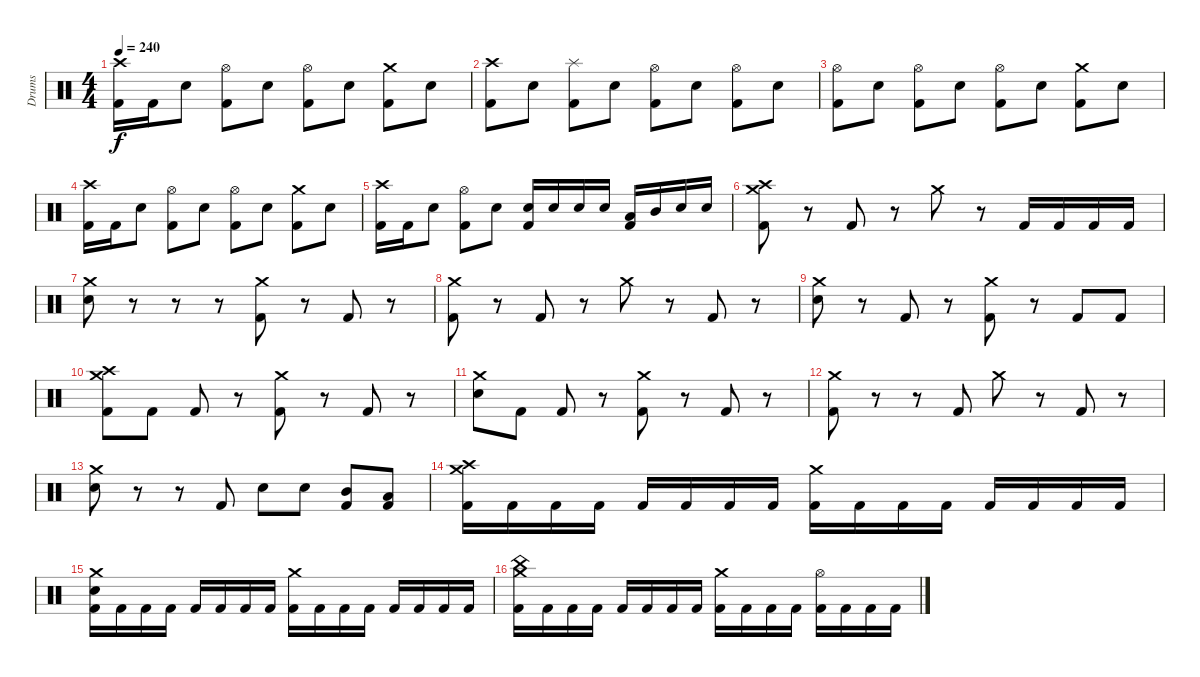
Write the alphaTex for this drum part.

\track ("Drums" "Drums") {instrument percussion}
\staff {score}
\articulation defaults
\ts (4 4)
\tempo 240
\clef neutral
\ks c
("Crash high (hit)" "Kick (hit) 2").16{dy f} "Kick (hit) 2".16 "Electric Snare (hit)".8 ("Hi-Hat (open)" "Kick (hit) 2").8 "Electric Snare (hit)".8 ("Hi-Hat (open)" "Kick (hit) 2").8 "Electric Snare (hit)".8 ("Crash medium (hit)" "Kick (hit) 2").8 "Electric Snare (hit)".8 |
("Crash high (hit)" "Kick (hit) 2").8 "Electric Snare (hit)".8 ("Splash (hit)" "Kick (hit) 2").8 "Electric Snare (hit)".8 ("Hi-Hat (open)" "Kick (hit) 2").8 "Electric Snare (hit)".8 ("Hi-Hat (open)" "Kick (hit) 2").8 "Electric Snare (hit)".8 |
("Hi-Hat (open)" "Kick (hit) 2").8 "Electric Snare (hit)".8 ("Hi-Hat (open)" "Kick (hit) 2").8 "Electric Snare (hit)".8 ("Hi-Hat (open)" "Kick (hit) 2").8 "Electric Snare (hit)".8 ("Crash medium (hit)" "Kick (hit) 2").8 "Electric Snare (hit)".8 |
("Crash high (hit)" "Kick (hit) 2").16 "Kick (hit) 2".16 "Electric Snare (hit)".8 ("Hi-Hat (open)" "Kick (hit) 2").8 "Electric Snare (hit)".8 ("Hi-Hat (open)" "Kick (hit) 2").8 "Electric Snare (hit)".8 ("Crash medium (hit)" "Kick (hit) 2").8 "Electric Snare (hit)".8 |
("Crash high (hit)" "Kick (hit) 2").16 "Kick (hit) 2".16 "Electric Snare (hit)".8 ("Hi-Hat (open)" "Kick (hit) 2").8 "Electric Snare (hit)".8 ("Electric Snare (hit)" "Kick (hit) 2").16 "Electric Snare (hit)".16 "Electric Snare (hit)".16 "Electric Snare (hit)".16 ("Low Tom (hit)" "Kick (hit) 2").16 "Mid Tom (hit)".16 "Electric Snare (hit)".16 "Electric Snare (hit)".16 |
("Crash medium (hit)" "Crash high (hit)" "Kick (hit) 2").8 r.8 "Kick (hit) 2".8 r.8 "Crash medium (hit)".8 r.8 "Kick (hit) 2".16 "Kick (hit) 2".16 "Kick (hit) 2".16 "Kick (hit) 2".16 |
("Crash medium (hit)" "Electric Snare (hit)").8 r.8 r.8 r.8 ("Crash medium (hit)" "Kick (hit) 2").8 r.8 "Kick (hit) 2".8 r.8 |
("Crash medium (hit)" "Kick (hit) 2").8 r.8 "Kick (hit) 2".8 r.8 "Crash medium (hit)".8 r.8 "Kick (hit) 2".8 r.8 |
("Crash medium (hit)" "Electric Snare (hit)").8 r.8 "Kick (hit) 2".8 r.8 ("Crash medium (hit)" "Kick (hit) 2").8 r.8 "Kick (hit) 2".8 "Kick (hit) 2".8 |
("Crash medium (hit)" "Crash high (hit)" "Kick (hit) 2").8 "Kick (hit) 2".8 "Kick (hit) 2".8 r.8 ("Crash medium (hit)" "Kick (hit) 2").8 r.8 "Kick (hit) 2".8 r.8 |
("Crash medium (hit)" "Electric Snare (hit)").8 "Kick (hit) 2".8 "Kick (hit) 2".8 r.8 ("Crash medium (hit)" "Kick (hit) 2").8 r.8 "Kick (hit) 2".8 r.8 |
("Crash medium (hit)" "Kick (hit) 2").8 r.8 r.8 "Kick (hit) 2".8 "Crash medium (hit)".8 r.8 "Kick (hit) 2".8 r.8 |
("Crash medium (hit)" "Electric Snare (hit)").8 r.8 r.8 "Kick (hit) 2".8 "Electric Snare (hit)".8 "Electric Snare (hit)".8 ("Mid Tom (hit)" "Kick (hit) 2").8 ("Low Tom (hit)" "Kick (hit) 2").8 |
("Crash medium (hit)" "Crash high (hit)" "Kick (hit) 2").16 "Kick (hit) 2".16 "Kick (hit) 2".16 "Kick (hit) 2".16 "Kick (hit) 2".16 "Kick (hit) 2".16 "Kick (hit) 2".16 "Kick (hit) 2".16 ("Crash medium (hit)" "Kick (hit) 2").16 "Kick (hit) 2".16 "Kick (hit) 2".16 "Kick (hit) 2".16 "Kick (hit) 2".16 "Kick (hit) 2".16 "Kick (hit) 2".16 "Kick (hit) 2".16 |
("Crash medium (hit)" "Electric Snare (hit)" "Kick (hit) 2").16 "Kick (hit) 2".16 "Kick (hit) 2".16 "Kick (hit) 2".16 "Kick (hit) 2".16 "Kick (hit) 2".16 "Kick (hit) 2".16 "Kick (hit) 2".16 ("Crash medium (hit)" "Kick (hit) 2").16 "Kick (hit) 2".16 "Kick (hit) 2".16 "Kick (hit) 2".16 "Kick (hit) 2".16 "Kick (hit) 2".16 "Kick (hit) 2".16 "Kick (hit) 2".16 |
("Crash medium (hit)" "China (hit)" "Kick (hit) 2").16 "Kick (hit) 2".16 "Kick (hit) 2".16 "Kick (hit) 2".16 "Kick (hit) 2".16 "Kick (hit) 2".16 "Kick (hit) 2".16 "Kick (hit) 2".16 ("Crash medium (hit)" "Kick (hit) 2").16 "Kick (hit) 2".16 "Kick (hit) 2".16 "Kick (hit) 2".16 ("Hi-Hat (open)" "Kick (hit) 2").16 "Kick (hit) 2".16 "Kick (hit) 2".16 "Kick (hit) 2".16
